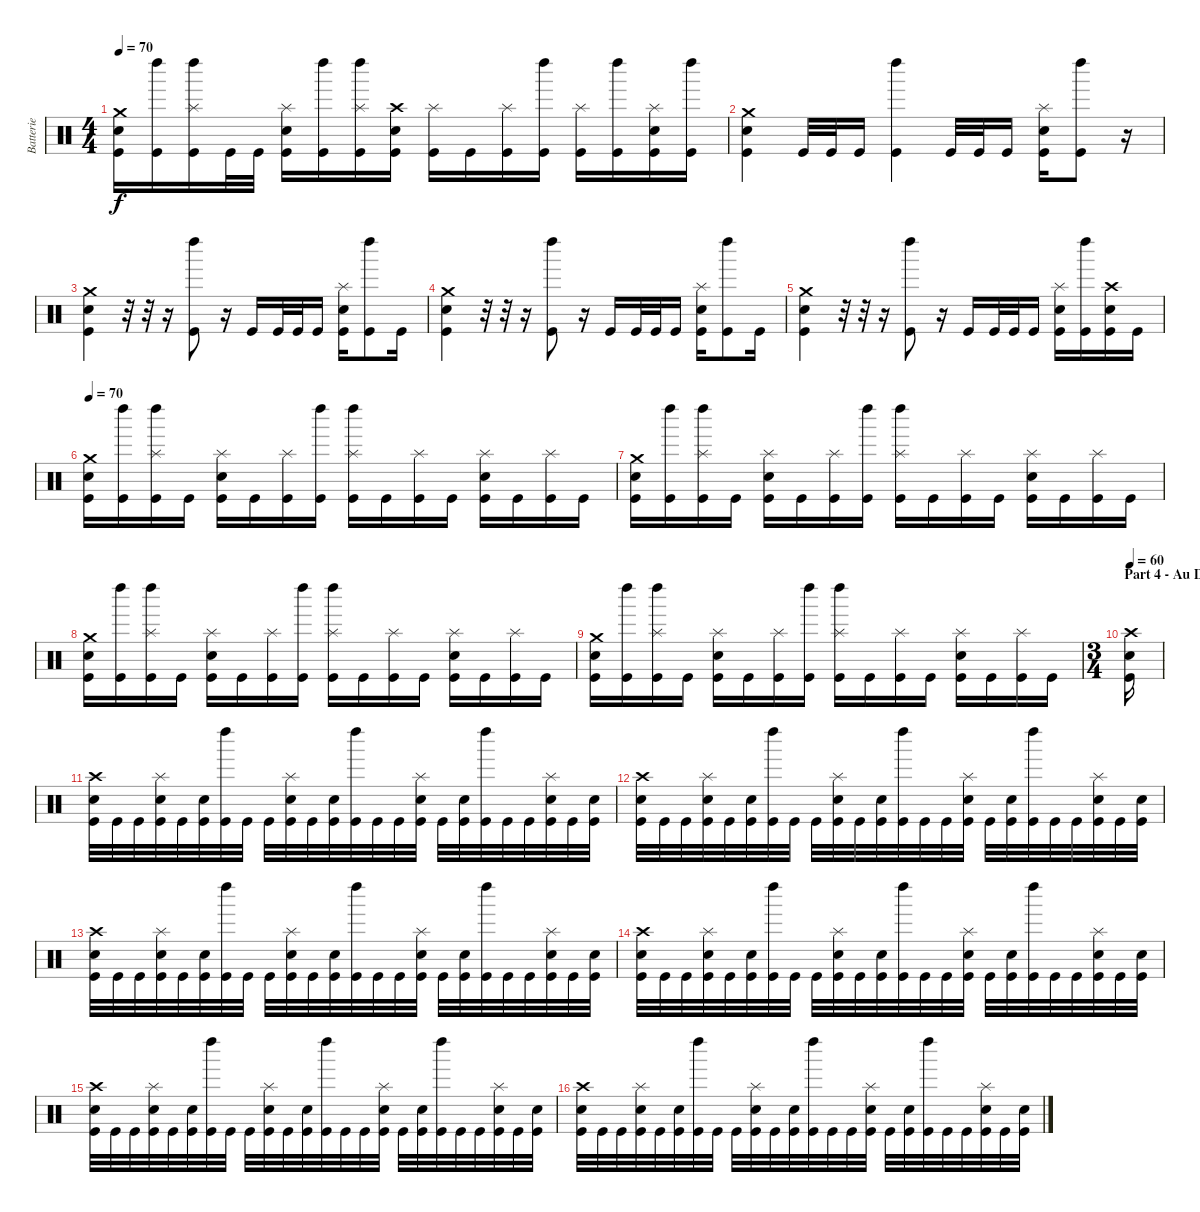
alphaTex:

\track ("Batterie" "Batterie") {instrument percussion}
\staff {score}
\articulation defaults
\ts (4 4)
\tempo 70
\clef neutral
\ks c
("Kick (hit)" "Electric Snare (hit)" "Crash medium (hit)").16{dy f} ("Kick (hit)" "Left Maraca (hit)").16 ("Kick (hit)" "Left Maraca (hit)" "Splash (hit)").16 "Kick (hit)".32 "Kick (hit)".32 ("Kick (hit)" "Electric Snare (hit)" "Splash (hit)").16 ("Kick (hit)" "Left Maraca (hit)").16 ("Kick (hit)" "Left Maraca (hit)" "Splash (hit)").16 ("Kick (hit)" "Electric Snare (hit)" "Crash high (hit)").16 ("Kick (hit)" "Splash (hit)").16 "Kick (hit)".16 ("Kick (hit)" "Splash (hit)").16 ("Kick (hit)" "Left Maraca (hit)").16 ("Kick (hit)" "Splash (hit)").16 ("Kick (hit)" "Left Maraca (hit)").16 ("Kick (hit)" "Electric Snare (hit)" "Splash (hit)").16 ("Kick (hit)" "Left Maraca (hit)").16 |
("Kick (hit)" "Electric Snare (hit)" "Crash medium (hit)").4 "Kick (hit)".32 "Kick (hit)".32 "Kick (hit)".16 ("Kick (hit)" "Left Maraca (hit)").4 "Kick (hit)".32 "Kick (hit)".32 "Kick (hit)".16 ("Kick (hit)" "Electric Snare (hit)" "Splash (hit)").16 ("Kick (hit)" "Left Maraca (hit)").8 r.16 |
("Kick (hit)" "Electric Snare (hit)" "Crash medium (hit)").4 r.32 r.32 r.16 ("Kick (hit)" "Left Maraca (hit)").8 r.16 "Kick (hit)".16 "Kick (hit)".32 "Kick (hit)".32 "Kick (hit)".16 ("Kick (hit)" "Electric Snare (hit)" "Splash (hit)").16 ("Kick (hit)" "Left Maraca (hit)").8 "Kick (hit)".16 |
("Kick (hit)" "Electric Snare (hit)" "Crash medium (hit)").4 r.32 r.32 r.16 ("Kick (hit)" "Left Maraca (hit)").8 r.16 "Kick (hit)".16 "Kick (hit)".32 "Kick (hit)".32 "Kick (hit)".16 ("Kick (hit)" "Electric Snare (hit)" "Splash (hit)").16 ("Kick (hit)" "Left Maraca (hit)").8 "Kick (hit)".16 |
("Kick (hit)" "Electric Snare (hit)" "Crash medium (hit)").4 r.32 r.32 r.16 ("Kick (hit)" "Left Maraca (hit)").8 r.16 "Kick (hit)".16 "Kick (hit)".32 "Kick (hit)".32 "Kick (hit)".16 ("Kick (hit)" "Electric Snare (hit)" "Splash (hit)").16 ("Kick (hit)" "Left Maraca (hit)").16 ("Kick (hit)" "Electric Snare (hit)" "Crash high (hit)").16 "Kick (hit)".16 |
\tempo 70
("Kick (hit)" "Electric Snare (hit)" "Crash medium (hit)").16 ("Kick (hit)" "Left Maraca (hit)").16 ("Kick (hit)" "Left Maraca (hit)" "Splash (hit)").16 "Kick (hit)".16 ("Kick (hit)" "Electric Snare (hit)" "Splash (hit)").16 "Kick (hit)".16 ("Kick (hit)" "Splash (hit)").16 ("Kick (hit)" "Left Maraca (hit)").16 ("Kick (hit)" "Left Maraca (hit)" "Splash (hit)").16 "Kick (hit)".16 ("Kick (hit)" "Splash (hit)").16 "Kick (hit)".16 ("Kick (hit)" "Electric Snare (hit)" "Splash (hit)").16 "Kick (hit)".16 ("Kick (hit)" "Splash (hit)").16 "Kick (hit)".16 |
("Kick (hit)" "Electric Snare (hit)" "Crash medium (hit)").16 ("Kick (hit)" "Left Maraca (hit)").16 ("Kick (hit)" "Left Maraca (hit)" "Splash (hit)").16 "Kick (hit)".16 ("Kick (hit)" "Electric Snare (hit)" "Splash (hit)").16 "Kick (hit)".16 ("Kick (hit)" "Splash (hit)").16 ("Kick (hit)" "Left Maraca (hit)").16 ("Kick (hit)" "Left Maraca (hit)" "Splash (hit)").16 "Kick (hit)".16 ("Kick (hit)" "Splash (hit)").16 "Kick (hit)".16 ("Kick (hit)" "Electric Snare (hit)" "Splash (hit)").16 "Kick (hit)".16 ("Kick (hit)" "Splash (hit)").16 "Kick (hit)".16 |
("Kick (hit)" "Electric Snare (hit)" "Crash medium (hit)").16 ("Kick (hit)" "Left Maraca (hit)").16 ("Kick (hit)" "Left Maraca (hit)" "Splash (hit)").16 "Kick (hit)".16 ("Kick (hit)" "Electric Snare (hit)" "Splash (hit)").16 "Kick (hit)".16 ("Kick (hit)" "Splash (hit)").16 ("Kick (hit)" "Left Maraca (hit)").16 ("Kick (hit)" "Left Maraca (hit)" "Splash (hit)").16 "Kick (hit)".16 ("Kick (hit)" "Splash (hit)").16 "Kick (hit)".16 ("Kick (hit)" "Electric Snare (hit)" "Splash (hit)").16 "Kick (hit)".16 ("Kick (hit)" "Splash (hit)").16 "Kick (hit)".16 |
("Kick (hit)" "Electric Snare (hit)" "Crash medium (hit)").16 ("Kick (hit)" "Left Maraca (hit)").16 ("Kick (hit)" "Left Maraca (hit)" "Splash (hit)").16 "Kick (hit)".16 ("Kick (hit)" "Electric Snare (hit)" "Splash (hit)").16 "Kick (hit)".16 ("Kick (hit)" "Splash (hit)").16 ("Kick (hit)" "Left Maraca (hit)").16 ("Kick (hit)" "Left Maraca (hit)" "Splash (hit)").16 "Kick (hit)".16 ("Kick (hit)" "Splash (hit)").16 "Kick (hit)".16 ("Kick (hit)" "Electric Snare (hit)" "Splash (hit)").16 "Kick (hit)".16 ("Kick (hit)" "Splash (hit)").16 "Kick (hit)".16 |
\ts (3 4)
\section ("" "Part 4 - Au Delà des Ombres")
\tempo 60
("Kick (hit)" "Electric Snare (hit)" "Crash high (hit)").16 |
("Kick (hit)" "Electric Snare (hit)" "Crash high (hit)").32 "Kick (hit)".32 "Kick (hit)".32 ("Kick (hit)" "Electric Snare (hit)" "Splash (hit)").32 "Kick (hit)".32 ("Kick (hit)" "Electric Snare (hit)").32 ("Kick (hit)" "Left Maraca (hit)").32 "Kick (hit)".32 "Kick (hit)".32 ("Kick (hit)" "Electric Snare (hit)" "Splash (hit)").32 "Kick (hit)".32 ("Kick (hit)" "Electric Snare (hit)").32 ("Kick (hit)" "Left Maraca (hit)").32 "Kick (hit)".32 "Kick (hit)".32 ("Kick (hit)" "Electric Snare (hit)" "Splash (hit)").32 "Kick (hit)".32 ("Kick (hit)" "Electric Snare (hit)").32 ("Kick (hit)" "Left Maraca (hit)").32 "Kick (hit)".32 "Kick (hit)".32 ("Kick (hit)" "Electric Snare (hit)" "Splash (hit)").32 "Kick (hit)".32 ("Kick (hit)" "Electric Snare (hit)").32 |
("Kick (hit)" "Electric Snare (hit)" "Crash high (hit)").32 "Kick (hit)".32 "Kick (hit)".32 ("Kick (hit)" "Electric Snare (hit)" "Splash (hit)").32 "Kick (hit)".32 ("Kick (hit)" "Electric Snare (hit)").32 ("Kick (hit)" "Left Maraca (hit)").32 "Kick (hit)".32 "Kick (hit)".32 ("Kick (hit)" "Electric Snare (hit)" "Splash (hit)").32 "Kick (hit)".32 ("Kick (hit)" "Electric Snare (hit)").32 ("Kick (hit)" "Left Maraca (hit)").32 "Kick (hit)".32 "Kick (hit)".32 ("Kick (hit)" "Electric Snare (hit)" "Splash (hit)").32 "Kick (hit)".32 ("Kick (hit)" "Electric Snare (hit)").32 ("Kick (hit)" "Left Maraca (hit)").32 "Kick (hit)".32 "Kick (hit)".32 ("Kick (hit)" "Electric Snare (hit)" "Splash (hit)").32 "Kick (hit)".32 ("Kick (hit)" "Electric Snare (hit)").32 |
("Kick (hit)" "Electric Snare (hit)" "Crash high (hit)").32 "Kick (hit)".32 "Kick (hit)".32 ("Kick (hit)" "Electric Snare (hit)" "Splash (hit)").32 "Kick (hit)".32 ("Kick (hit)" "Electric Snare (hit)").32 ("Kick (hit)" "Left Maraca (hit)").32 "Kick (hit)".32 "Kick (hit)".32 ("Kick (hit)" "Electric Snare (hit)" "Splash (hit)").32 "Kick (hit)".32 ("Kick (hit)" "Electric Snare (hit)").32 ("Kick (hit)" "Left Maraca (hit)").32 "Kick (hit)".32 "Kick (hit)".32 ("Kick (hit)" "Electric Snare (hit)" "Splash (hit)").32 "Kick (hit)".32 ("Kick (hit)" "Electric Snare (hit)").32 ("Kick (hit)" "Left Maraca (hit)").32 "Kick (hit)".32 "Kick (hit)".32 ("Kick (hit)" "Electric Snare (hit)" "Splash (hit)").32 "Kick (hit)".32 ("Kick (hit)" "Electric Snare (hit)").32 |
("Kick (hit)" "Electric Snare (hit)" "Crash high (hit)").32 "Kick (hit)".32 "Kick (hit)".32 ("Kick (hit)" "Electric Snare (hit)" "Splash (hit)").32 "Kick (hit)".32 ("Kick (hit)" "Electric Snare (hit)").32 ("Kick (hit)" "Left Maraca (hit)").32 "Kick (hit)".32 "Kick (hit)".32 ("Kick (hit)" "Electric Snare (hit)" "Splash (hit)").32 "Kick (hit)".32 ("Kick (hit)" "Electric Snare (hit)").32 ("Kick (hit)" "Left Maraca (hit)").32 "Kick (hit)".32 "Kick (hit)".32 ("Kick (hit)" "Electric Snare (hit)" "Splash (hit)").32 "Kick (hit)".32 ("Kick (hit)" "Electric Snare (hit)").32 ("Kick (hit)" "Left Maraca (hit)").32 "Kick (hit)".32 "Kick (hit)".32 ("Kick (hit)" "Electric Snare (hit)" "Splash (hit)").32 "Kick (hit)".32 ("Kick (hit)" "Electric Snare (hit)").32 |
("Kick (hit)" "Electric Snare (hit)" "Crash high (hit)").32 "Kick (hit)".32 "Kick (hit)".32 ("Kick (hit)" "Electric Snare (hit)" "Splash (hit)").32 "Kick (hit)".32 ("Kick (hit)" "Electric Snare (hit)").32 ("Kick (hit)" "Left Maraca (hit)").32 "Kick (hit)".32 "Kick (hit)".32 ("Kick (hit)" "Electric Snare (hit)" "Splash (hit)").32 "Kick (hit)".32 ("Kick (hit)" "Electric Snare (hit)").32 ("Kick (hit)" "Left Maraca (hit)").32 "Kick (hit)".32 "Kick (hit)".32 ("Kick (hit)" "Electric Snare (hit)" "Splash (hit)").32 "Kick (hit)".32 ("Kick (hit)" "Electric Snare (hit)").32 ("Kick (hit)" "Left Maraca (hit)").32 "Kick (hit)".32 "Kick (hit)".32 ("Kick (hit)" "Electric Snare (hit)" "Splash (hit)").32 "Kick (hit)".32 ("Kick (hit)" "Electric Snare (hit)").32 |
("Kick (hit)" "Electric Snare (hit)" "Crash high (hit)").32 "Kick (hit)".32 "Kick (hit)".32 ("Kick (hit)" "Electric Snare (hit)" "Splash (hit)").32 "Kick (hit)".32 ("Kick (hit)" "Electric Snare (hit)").32 ("Kick (hit)" "Left Maraca (hit)").32 "Kick (hit)".32 "Kick (hit)".32 ("Kick (hit)" "Electric Snare (hit)" "Splash (hit)").32 "Kick (hit)".32 ("Kick (hit)" "Electric Snare (hit)").32 ("Kick (hit)" "Left Maraca (hit)").32 "Kick (hit)".32 "Kick (hit)".32 ("Kick (hit)" "Electric Snare (hit)" "Splash (hit)").32 "Kick (hit)".32 ("Kick (hit)" "Electric Snare (hit)").32 ("Kick (hit)" "Left Maraca (hit)").32 "Kick (hit)".32 "Kick (hit)".32 ("Kick (hit)" "Electric Snare (hit)" "Splash (hit)").32 "Kick (hit)".32 ("Kick (hit)" "Electric Snare (hit)").32
